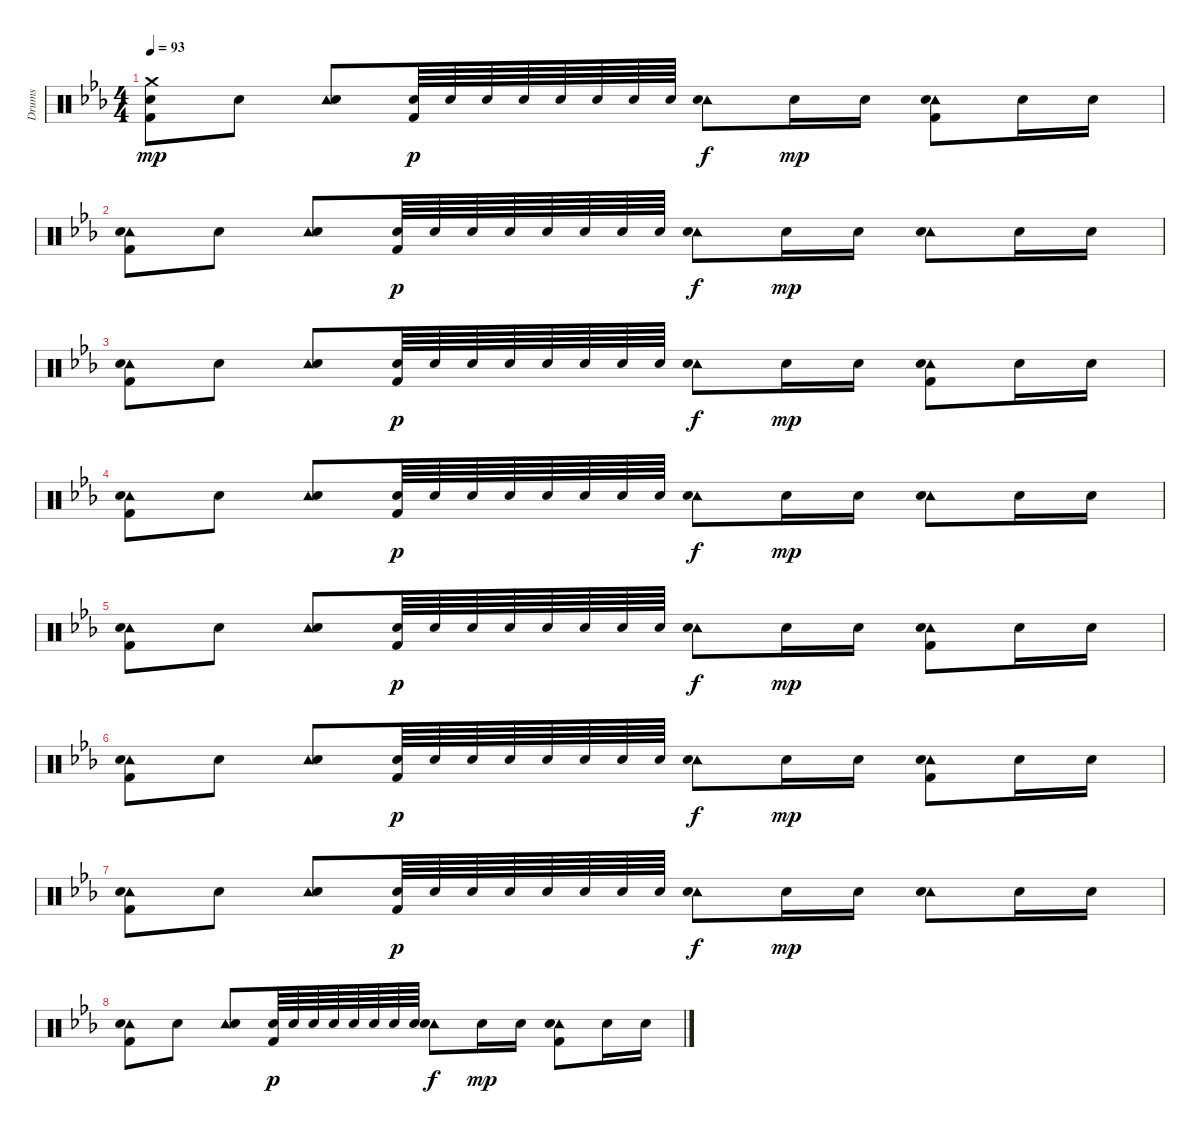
\track ("Drums" "Drums") {instrument percussion}
\staff {score}
\articulation defaults
\ts (4 4)
\tempo 93
\clef neutral
\ks eb
("Crash medium (hit)" "Electric Snare (hit)" "Kick (hit) 2").8{dy mp} "Electric Snare (hit)".8 ("Tambourine (hit)" "Electric Snare (hit)").8 ("Electric Snare (hit)" "Kick (hit) 2").64{dy p} "Electric Snare (hit)".64 "Electric Snare (hit)".64 "Electric Snare (hit)".64 "Electric Snare (hit)".64 "Electric Snare (hit)".64 "Electric Snare (hit)".64 "Electric Snare (hit)".64 ("Tambourine (hit)" "Snare (hit) 2").8{dy f} "Electric Snare (hit)".16{dy mp} "Electric Snare (hit)".16 ("Tambourine (hit)" "Electric Snare (hit)" "Kick (hit) 2").8 "Electric Snare (hit)".16 "Electric Snare (hit)".16 |
("Tambourine (hit)" "Electric Snare (hit)" "Kick (hit) 2").8 "Electric Snare (hit)".8 ("Tambourine (hit)" "Electric Snare (hit)").8 ("Electric Snare (hit)" "Kick (hit) 2").64{dy p} "Electric Snare (hit)".64 "Electric Snare (hit)".64 "Electric Snare (hit)".64 "Electric Snare (hit)".64 "Electric Snare (hit)".64 "Electric Snare (hit)".64 "Electric Snare (hit)".64 ("Tambourine (hit)" "Snare (hit) 2").8{dy f} "Electric Snare (hit)".16{dy mp} "Electric Snare (hit)".16 ("Tambourine (hit)" "Electric Snare (hit)").8 "Electric Snare (hit)".16 "Electric Snare (hit)".16 |
("Tambourine (hit)" "Electric Snare (hit)" "Kick (hit) 2").8 "Electric Snare (hit)".8 ("Tambourine (hit)" "Electric Snare (hit)").8 ("Electric Snare (hit)" "Kick (hit) 2").64{dy p} "Electric Snare (hit)".64 "Electric Snare (hit)".64 "Electric Snare (hit)".64 "Electric Snare (hit)".64 "Electric Snare (hit)".64 "Electric Snare (hit)".64 "Electric Snare (hit)".64 ("Tambourine (hit)" "Snare (hit) 2").8{dy f} "Electric Snare (hit)".16{dy mp} "Electric Snare (hit)".16 ("Tambourine (hit)" "Electric Snare (hit)" "Kick (hit) 2").8 "Electric Snare (hit)".16 "Electric Snare (hit)".16 |
("Tambourine (hit)" "Electric Snare (hit)" "Kick (hit) 2").8 "Electric Snare (hit)".8 ("Tambourine (hit)" "Electric Snare (hit)").8 ("Electric Snare (hit)" "Kick (hit) 2").64{dy p} "Electric Snare (hit)".64 "Electric Snare (hit)".64 "Electric Snare (hit)".64 "Electric Snare (hit)".64 "Electric Snare (hit)".64 "Electric Snare (hit)".64 "Electric Snare (hit)".64 ("Tambourine (hit)" "Snare (hit) 2").8{dy f} "Electric Snare (hit)".16{dy mp} "Electric Snare (hit)".16 ("Tambourine (hit)" "Electric Snare (hit)").8 "Electric Snare (hit)".16 "Electric Snare (hit)".16 |
("Tambourine (hit)" "Electric Snare (hit)" "Kick (hit) 2").8 "Electric Snare (hit)".8 ("Tambourine (hit)" "Electric Snare (hit)").8 ("Electric Snare (hit)" "Kick (hit) 2").64{dy p} "Electric Snare (hit)".64 "Electric Snare (hit)".64 "Electric Snare (hit)".64 "Electric Snare (hit)".64 "Electric Snare (hit)".64 "Electric Snare (hit)".64 "Electric Snare (hit)".64 ("Tambourine (hit)" "Snare (hit) 2").8{dy f} "Electric Snare (hit)".16{dy mp} "Electric Snare (hit)".16 ("Tambourine (hit)" "Electric Snare (hit)" "Kick (hit) 2").8 "Electric Snare (hit)".16 "Electric Snare (hit)".16 |
("Tambourine (hit)" "Electric Snare (hit)" "Kick (hit) 2").8 "Electric Snare (hit)".8 ("Tambourine (hit)" "Electric Snare (hit)").8 ("Electric Snare (hit)" "Kick (hit) 2").64{dy p} "Electric Snare (hit)".64 "Electric Snare (hit)".64 "Electric Snare (hit)".64 "Electric Snare (hit)".64 "Electric Snare (hit)".64 "Electric Snare (hit)".64 "Electric Snare (hit)".64 ("Tambourine (hit)" "Snare (hit) 2").8{dy f} "Electric Snare (hit)".16{dy mp} "Electric Snare (hit)".16 ("Tambourine (hit)" "Electric Snare (hit)" "Kick (hit) 2").8 "Electric Snare (hit)".16 "Electric Snare (hit)".16 |
("Tambourine (hit)" "Electric Snare (hit)" "Kick (hit) 2").8 "Electric Snare (hit)".8 ("Tambourine (hit)" "Electric Snare (hit)").8 ("Electric Snare (hit)" "Kick (hit) 2").64{dy p} "Electric Snare (hit)".64 "Electric Snare (hit)".64 "Electric Snare (hit)".64 "Electric Snare (hit)".64 "Electric Snare (hit)".64 "Electric Snare (hit)".64 "Electric Snare (hit)".64 ("Tambourine (hit)" "Snare (hit) 2").8{dy f} "Electric Snare (hit)".16{dy mp} "Electric Snare (hit)".16 ("Tambourine (hit)" "Electric Snare (hit)").8 "Electric Snare (hit)".16 "Electric Snare (hit)".16 |
("Tambourine (hit)" "Electric Snare (hit)" "Kick (hit) 2").8 "Electric Snare (hit)".8 ("Tambourine (hit)" "Electric Snare (hit)").8 ("Electric Snare (hit)" "Kick (hit) 2").64{dy p} "Electric Snare (hit)".64 "Electric Snare (hit)".64 "Electric Snare (hit)".64 "Electric Snare (hit)".64 "Electric Snare (hit)".64 "Electric Snare (hit)".64 "Electric Snare (hit)".64 ("Tambourine (hit)" "Snare (hit) 2").8{dy f} "Electric Snare (hit)".16{dy mp} "Electric Snare (hit)".16 ("Tambourine (hit)" "Electric Snare (hit)" "Kick (hit) 2").8 "Electric Snare (hit)".16 "Electric Snare (hit)".16
